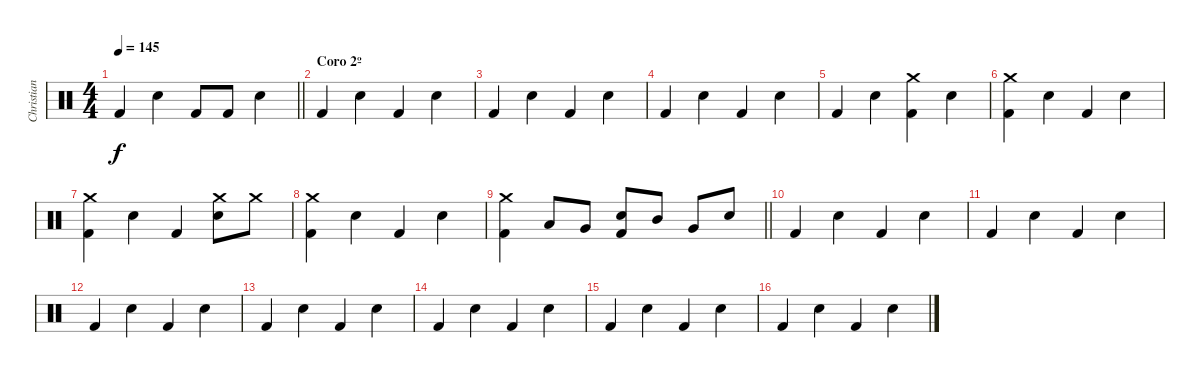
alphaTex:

\track ("Christian Paredes" "Christian ") {instrument percussion}
\staff {score}
\articulation defaults
\ts (4 4)
\tempo 145
\clef neutral
\barLineRight lightlight
\ks c "Kick (hit) 2".4{dy f} "Snare (hit) 2".4 "Kick (hit) 2".8 "Kick (hit) 2".8 "Snare (hit) 2".4
|
\section ("" "Coro 2º")
"Kick (hit) 2".4 "Snare (hit) 2".4 "Kick (hit) 2".4 "Snare (hit) 2".4 |
"Kick (hit) 2".4 "Snare (hit) 2".4 "Kick (hit) 2".4 "Snare (hit) 2".4 |
"Kick (hit) 2".4 "Snare (hit) 2".4 "Kick (hit) 2".4 "Snare (hit) 2".4 |
"Kick (hit) 2".4 "Snare (hit) 2".4 ("Crash medium (hit)" "Kick (hit) 2").4 "Snare (hit) 2".4 |
("Crash medium (hit)" "Kick (hit) 2").4 "Snare (hit) 2".4 "Kick (hit) 2".4 "Snare (hit) 2".4 |
("Crash medium (hit)" "Kick (hit) 2").4 "Snare (hit) 2".4 "Kick (hit) 2".4 ("Crash medium (hit)" "Snare (hit) 2").8 "Crash medium (hit)".8 |
("Crash medium (hit)" "Kick (hit) 2").4 "Snare (hit) 2".4 "Kick (hit) 2".4 "Snare (hit) 2".4 |
\barLineRight lightlight
("Crash medium (hit)" "Kick (hit) 2").4 "Low Tom (hit)".8 "Very Low Tom (hit)".8 ("Snare (hit) 2" "Kick (hit) 2").8 "Mid Tom (hit)".8 "Very Low Tom (hit)".8 "Snare (hit) 2".8 |
"Kick (hit) 2".4 "Snare (hit) 2".4 "Kick (hit) 2".4 "Snare (hit) 2".4 |
"Kick (hit) 2".4 "Snare (hit) 2".4 "Kick (hit) 2".4 "Snare (hit) 2".4 |
"Kick (hit) 2".4 "Snare (hit) 2".4 "Kick (hit) 2".4 "Snare (hit) 2".4 |
"Kick (hit) 2".4 "Snare (hit) 2".4 "Kick (hit) 2".4 "Snare (hit) 2".4 |
"Kick (hit) 2".4 "Snare (hit) 2".4 "Kick (hit) 2".4 "Snare (hit) 2".4 |
"Kick (hit) 2".4 "Snare (hit) 2".4 "Kick (hit) 2".4 "Snare (hit) 2".4 |
"Kick (hit) 2".4 "Snare (hit) 2".4 "Kick (hit) 2".4 "Snare (hit) 2".4
